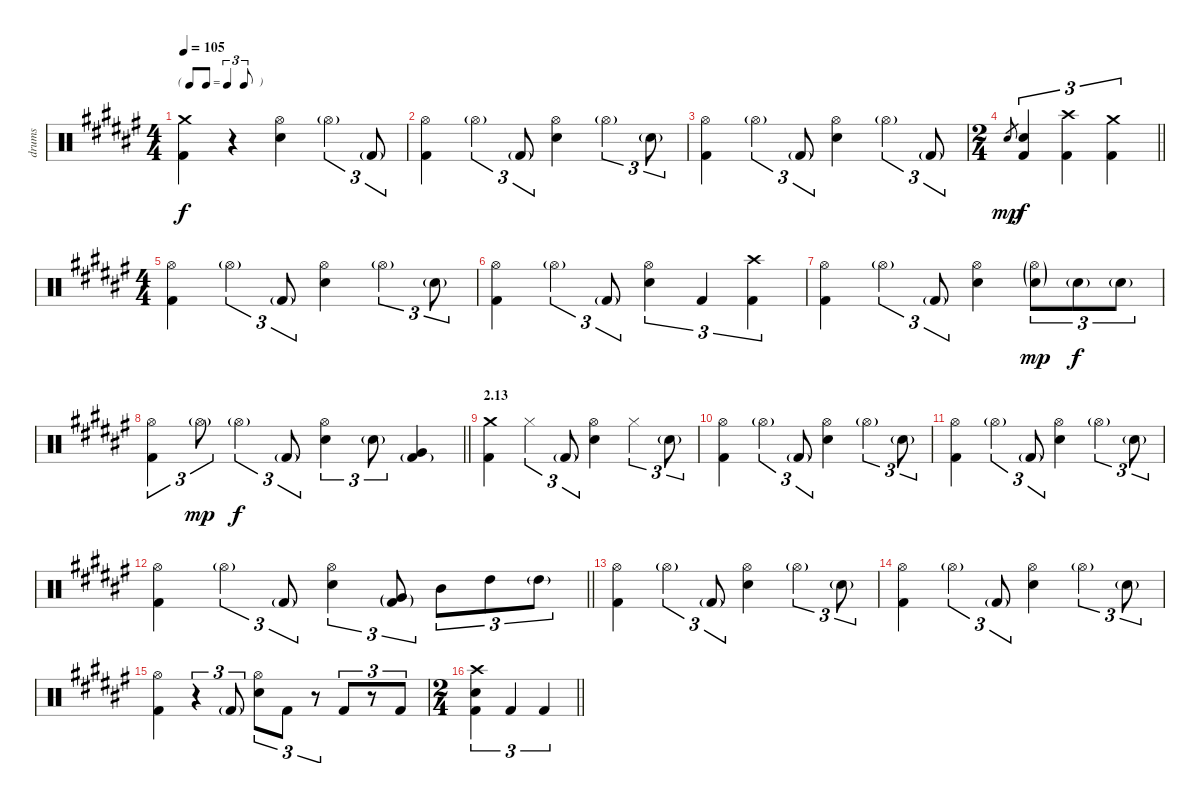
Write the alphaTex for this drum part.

\track ("drums" "drums") {instrument percussion}
\staff {score}
\articulation defaults
\ts (4 4)
\tf triplet8th
\tempo 105
\clef neutral
\ks d#minor
("Crash medium (hit)" "Kick (hit) 2").4{dy f} r.4 ("Hi-Hat (open)" "Electric Snare (hit)").4 "Hi-Hat (open)"{g}.4{tu (3 2)} "Kick (hit) 2"{g}.8{tu (3 2)} |
\ks f#
("Hi-Hat (open)" "Kick (hit) 2").4 "Hi-Hat (open)"{g}.4{tu (3 2)} "Kick (hit) 2"{g}.8{tu (3 2)} ("Hi-Hat (open)" "Electric Snare (hit)").4 "Hi-Hat (open)"{g}.4{tu (3 2)} "Electric Snare (hit)"{g}.8{tu (3 2)} |
\ks d#minor
("Hi-Hat (open)" "Kick (hit) 2").4 "Hi-Hat (open)"{g}.4{tu (3 2)} "Kick (hit) 2"{g}.8{tu (3 2)} ("Hi-Hat (open)" "Electric Snare (hit)").4 "Hi-Hat (open)"{g}.4{tu (3 2)} "Kick (hit) 2"{g}.8{tu (3 2)} |
\ts (2 4)
\barLineRight lightlight
\ks f# "Electric Snare (hit)".8{gr dy mp}
("Electric Snare (hit)" "Kick (hit) 2").4{tu (3 2) dy f} ("Crash high (hit)" "Kick (hit) 2").4{tu (3 2)} ("Crash medium (hit)" "Kick (hit) 2").4{tu (3 2)} |
\ts (4 4)
\ks d#minor
("Hi-Hat (open)" "Kick (hit) 2").4 "Hi-Hat (open)"{g}.4{tu (3 2)} "Kick (hit) 2"{g}.8{tu (3 2)} ("Hi-Hat (open)" "Electric Snare (hit)").4 "Hi-Hat (open)"{g}.4{tu (3 2)} "Electric Snare (hit)"{g}.8{tu (3 2)} |
("Hi-Hat (open)" "Kick (hit) 2").4 "Hi-Hat (open)"{g}.4{tu (3 2)} "Kick (hit) 2"{g}.8{tu (3 2)} ("Hi-Hat (open)" "Electric Snare (hit)").4{tu (3 2)} "Kick (hit) 2".4{tu (3 2)} ("Crash high (hit)" "Kick (hit) 2").4{tu (3 2)} |
("Hi-Hat (open)" "Kick (hit) 2").4 "Hi-Hat (open)"{g}.4{tu (3 2)} "Kick (hit) 2"{g}.8{tu (3 2)} ("Hi-Hat (open)" "Electric Snare (hit)").4 ("Hi-Hat (open)"{g} "Electric Snare (hit)"{g}).8{tu (3 2) dy mp} "Electric Snare (hit)"{g}.8{tu (3 2) dy f} "Electric Snare (hit)"{g}.8{tu (3 2)} |
\barLineRight lightlight
("Hi-Hat (open)" "Kick (hit) 2").4{tu (3 2)} "Hi-Hat (open)"{g}.8{tu (3 2) dy mp} "Hi-Hat (open)"{g}.4{tu (3 2) dy f} "Kick (hit) 2"{g}.8{tu (3 2)} ("Hi-Hat (open)" "Electric Snare (hit)").4{tu (3 2)} "Electric Snare (hit)"{g}.8{tu (3 2)} ("Very Low Tom (hit)" "Kick (hit) 2"{g}).4 |
\section ("" "2.13")
\ks f#
("Crash medium (hit)" "Kick (hit) 2").4 "Hi-Hat (closed)".4{tu (3 2)} "Kick (hit) 2"{g}.8{tu (3 2)} ("Hi-Hat (open)" "Electric Snare (hit)").4 "Hi-Hat (closed)".4{tu (3 2)} "Electric Snare (hit)"{g}.8{tu (3 2)} |
\ks d#minor
("Hi-Hat (open)" "Kick (hit) 2").4 "Hi-Hat (open)"{g}.4{tu (3 2)} "Kick (hit) 2"{g}.8{tu (3 2)} ("Hi-Hat (open)" "Electric Snare (hit)").4 "Hi-Hat (open)"{g}.4{tu (3 2)} "Electric Snare (hit)"{g}.8{tu (3 2)} |
("Hi-Hat (open)" "Kick (hit) 2").4 "Hi-Hat (open)"{g}.4{tu (3 2)} "Kick (hit) 2"{g}.8{tu (3 2)} ("Hi-Hat (open)" "Electric Snare (hit)").4 "Hi-Hat (open)"{g}.4{tu (3 2)} "Electric Snare (hit)"{g}.8{tu (3 2)} |
\barLineRight lightlight
("Hi-Hat (open)" "Kick (hit) 2").4 "Hi-Hat (open)"{g}.4{tu (3 2)} "Kick (hit) 2"{g}.8{tu (3 2)} ("Hi-Hat (open)" "Electric Snare (hit)").4{tu (3 2)} ("Very Low Tom (hit)"{g} "Kick (hit) 2"{g}).8{tu (3 2)} "Mid Tom (hit)".8{tu (3 2)} "High Tom (hit)".8{tu (3 2)} "High Tom (hit)"{g}.8{tu (3 2)} |
\ks f#
("Hi-Hat (open)" "Kick (hit) 2").4 "Hi-Hat (open)"{g}.4{tu (3 2)} "Kick (hit) 2"{g}.8{tu (3 2)} ("Hi-Hat (open)" "Electric Snare (hit)").4 "Hi-Hat (open)"{g}.4{tu (3 2)} "Electric Snare (hit)"{g}.8{tu (3 2)} |
\ks d#minor
("Hi-Hat (open)" "Kick (hit) 2").4 "Hi-Hat (open)"{g}.4{tu (3 2)} "Kick (hit) 2"{g}.8{tu (3 2)} ("Hi-Hat (open)" "Electric Snare (hit)").4 "Hi-Hat (open)"{g}.4{tu (3 2)} "Electric Snare (hit)"{g}.8{tu (3 2)} |
("Hi-Hat (open)" "Kick (hit) 2").4 r.4{tu (3 2)} "Kick (hit) 2"{g}.8{tu (3 2)} ("Hi-Hat (open)" "Electric Snare (hit)").8{tu (3 2)} "Kick (hit) 2".8{tu (3 2)} r.8{tu (3 2)} "Kick (hit) 2".8{tu (3 2)} r.8{tu (3 2)} "Kick (hit) 2".8{tu (3 2)} |
\ts (2 4)
\barLineRight lightlight
\ks f#
("Crash high (hit)" "Electric Snare (hit)" "Kick (hit) 2").4{tu (3 2)} "Kick (hit) 2".4{tu (3 2)} "Kick (hit) 2".4{tu (3 2)}
